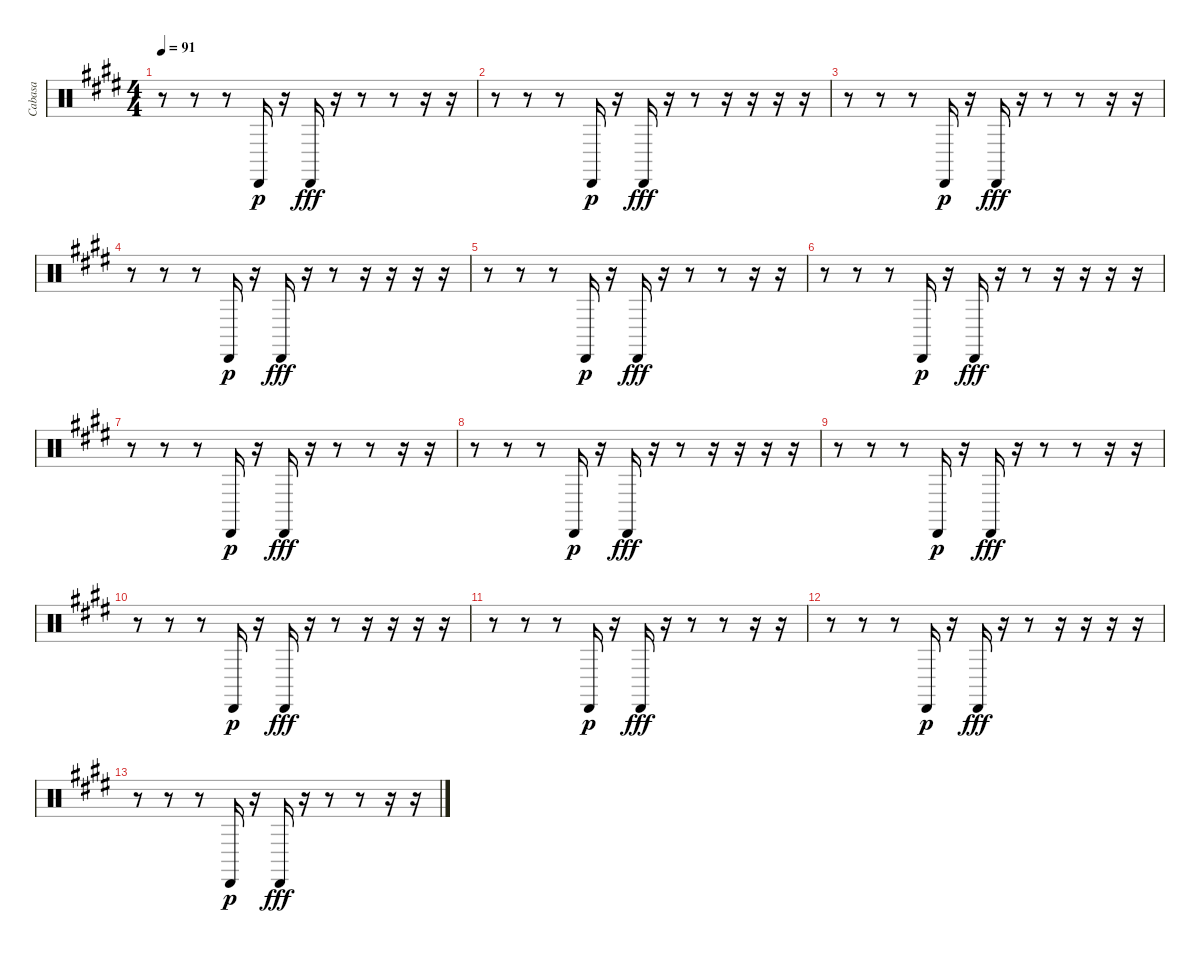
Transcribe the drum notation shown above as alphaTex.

\track ("Cabasa" "Cabasa") {instrument percussion}
\staff {score}
\articulation defaults
\ts (4 4)
\tempo 91
\clef neutral
\ks e
r.8{dy fff} r.8 r.8 "Cabasa (hit)".16{dy p} r.16 "Cabasa (hit)".16{dy fff} r.16 r.8 r.8 r.16 r.16 |
r.8 r.8 r.8 "Cabasa (hit)".16{dy p} r.16 "Cabasa (hit)".16{dy fff} r.16 r.8 r.16 r.16 r.16 r.16 |
r.8 r.8 r.8 "Cabasa (hit)".16{dy p} r.16 "Cabasa (hit)".16{dy fff} r.16 r.8 r.8 r.16 r.16 |
r.8 r.8 r.8 "Cabasa (hit)".16{dy p} r.16 "Cabasa (hit)".16{dy fff} r.16 r.8 r.16 r.16 r.16 r.16 |
r.8 r.8 r.8 "Cabasa (hit)".16{dy p} r.16 "Cabasa (hit)".16{dy fff} r.16 r.8 r.8 r.16 r.16 |
r.8 r.8 r.8 "Cabasa (hit)".16{dy p} r.16 "Cabasa (hit)".16{dy fff} r.16 r.8 r.16 r.16 r.16 r.16 |
r.8 r.8 r.8 "Cabasa (hit)".16{dy p} r.16 "Cabasa (hit)".16{dy fff} r.16 r.8 r.8 r.16 r.16 |
r.8 r.8 r.8 "Cabasa (hit)".16{dy p} r.16 "Cabasa (hit)".16{dy fff} r.16 r.8 r.16 r.16 r.16 r.16 |
r.8 r.8 r.8 "Cabasa (hit)".16{dy p} r.16 "Cabasa (hit)".16{dy fff} r.16 r.8 r.8 r.16 r.16 |
r.8 r.8 r.8 "Cabasa (hit)".16{dy p} r.16 "Cabasa (hit)".16{dy fff} r.16 r.8 r.16 r.16 r.16 r.16 |
r.8 r.8 r.8 "Cabasa (hit)".16{dy p} r.16 "Cabasa (hit)".16{dy fff} r.16 r.8 r.8 r.16 r.16 |
r.8 r.8 r.8 "Cabasa (hit)".16{dy p} r.16 "Cabasa (hit)".16{dy fff} r.16 r.8 r.16 r.16 r.16 r.16 |
r.8 r.8 r.8 "Cabasa (hit)".16{dy p} r.16 "Cabasa (hit)".16{dy fff} r.16 r.8 r.8 r.16 r.16
